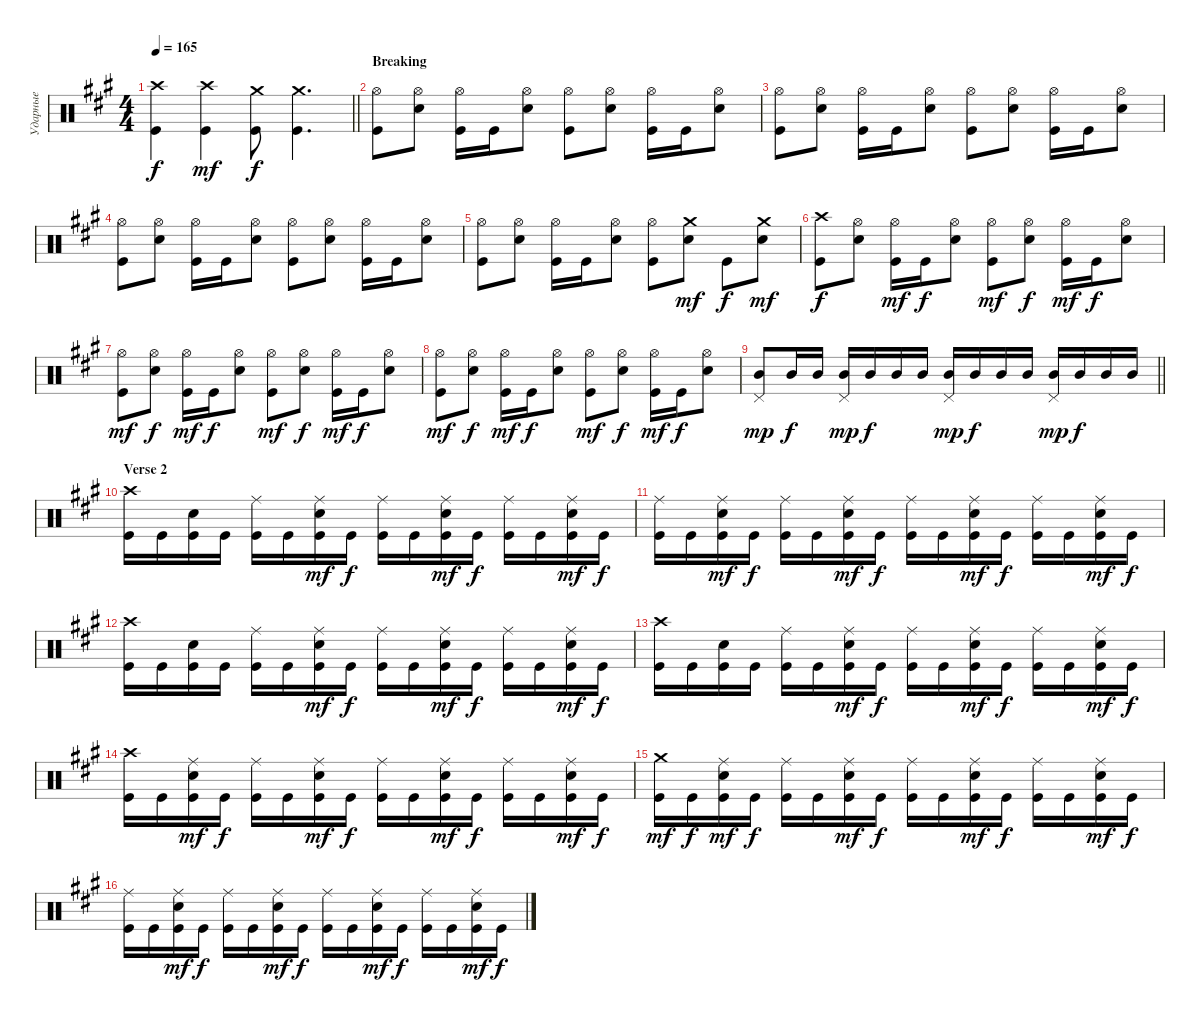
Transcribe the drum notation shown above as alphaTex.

\track ("Ударные" "Ударные") {instrument percussion}
\staff {score}
\articulation defaults
\ts (4 4)
\tempo 165
\clef neutral
\barLineRight lightlight
\ks f#minor
("Kick (hit)" "Crash high (hit)").4{dy f} ("Kick (hit)" "Crash high (hit)").4{dy mf} ("Kick (hit)" "Crash medium (hit)").8{dy f} ("Kick (hit)" "Crash medium (hit)").4{d} |
\section ("" "Breaking")
("Kick (hit)" "Hi-Hat (open)").8 ("Snare (hit) 2" "Hi-Hat (open)").8 ("Kick (hit)" "Hi-Hat (open)").16 "Kick (hit)".16 ("Snare (hit) 2" "Hi-Hat (open)").8 ("Kick (hit)" "Hi-Hat (open)").8 ("Snare (hit) 2" "Hi-Hat (open)").8 ("Kick (hit)" "Hi-Hat (open)").16 "Kick (hit)".16 ("Snare (hit) 2" "Hi-Hat (open)").8 |
("Kick (hit)" "Hi-Hat (open)").8 ("Snare (hit) 2" "Hi-Hat (open)").8 ("Kick (hit)" "Hi-Hat (open)").16 "Kick (hit)".16 ("Snare (hit) 2" "Hi-Hat (open)").8 ("Kick (hit)" "Hi-Hat (open)").8 ("Snare (hit) 2" "Hi-Hat (open)").8 ("Kick (hit)" "Hi-Hat (open)").16 "Kick (hit)".16 ("Snare (hit) 2" "Hi-Hat (open)").8 |
("Kick (hit)" "Hi-Hat (open)").8 ("Snare (hit) 2" "Hi-Hat (open)").8 ("Kick (hit)" "Hi-Hat (open)").16 "Kick (hit)".16 ("Snare (hit) 2" "Hi-Hat (open)").8 ("Kick (hit)" "Hi-Hat (open)").8 ("Snare (hit) 2" "Hi-Hat (open)").8 ("Kick (hit)" "Hi-Hat (open)").16 "Kick (hit)".16 ("Snare (hit) 2" "Hi-Hat (open)").8 |
("Kick (hit)" "Hi-Hat (open)").8 ("Snare (hit) 2" "Hi-Hat (open)").8 ("Kick (hit)" "Hi-Hat (open)").16 "Kick (hit)".16 ("Snare (hit) 2" "Hi-Hat (open)").8 ("Kick (hit)" "Hi-Hat (open)").8 ("Snare (hit) 2" "Crash medium (hit)").8{dy mf} "Kick (hit)".8{dy f} ("Snare (hit) 2" "Crash medium (hit)").8{dy mf} |
("Kick (hit)" "Crash high (hit)").8{dy f} ("Snare (hit) 2" "Hi-Hat (open)").8 ("Kick (hit)" "Hi-Hat (open)").16{dy mf} "Kick (hit)".16{dy f} ("Snare (hit) 2" "Hi-Hat (open)").8 ("Kick (hit)" "Hi-Hat (open)").8{dy mf} ("Snare (hit) 2" "Hi-Hat (open)").8{dy f} ("Kick (hit)" "Hi-Hat (open)").16{dy mf} "Kick (hit)".16{dy f} ("Snare (hit) 2" "Hi-Hat (open)").8 |
("Kick (hit)" "Hi-Hat (open)").8{dy mf} ("Snare (hit) 2" "Hi-Hat (open)").8{dy f} ("Kick (hit)" "Hi-Hat (open)").16{dy mf} "Kick (hit)".16{dy f} ("Snare (hit) 2" "Hi-Hat (open)").8 ("Kick (hit)" "Hi-Hat (open)").8{dy mf} ("Snare (hit) 2" "Hi-Hat (open)").8{dy f} ("Kick (hit)" "Hi-Hat (open)").16{dy mf} "Kick (hit)".16{dy f} ("Snare (hit) 2" "Hi-Hat (open)").8 |
("Kick (hit)" "Hi-Hat (open)").8{dy mf} ("Snare (hit) 2" "Hi-Hat (open)").8{dy f} ("Kick (hit)" "Hi-Hat (open)").16{dy mf} "Kick (hit)".16{dy f} ("Snare (hit) 2" "Hi-Hat (open)").8 ("Kick (hit)" "Hi-Hat (open)").8{dy mf} ("Snare (hit) 2" "Hi-Hat (open)").8{dy f} ("Kick (hit)" "Hi-Hat (open)").16{dy mf} "Kick (hit)".16{dy f} ("Snare (hit) 2" "Hi-Hat (open)").8 |
\barLineRight lightlight
("Mid Tom (hit)" "Pedal Hi-Hat (hit)").8{dy mp} "Mid Tom (hit)".16{dy f} "Mid Tom (hit)".16 ("Pedal Hi-Hat (hit)" "Mid Tom (hit)").16{dy mp} "Mid Tom (hit)".16{dy f} "Mid Tom (hit)".16 "Mid Tom (hit)".16 ("Mid Tom (hit)" "Pedal Hi-Hat (hit)").16{dy mp} "Mid Tom (hit)".16{dy f} "Mid Tom (hit)".16 "Mid Tom (hit)".16 ("Mid Tom (hit)" "Pedal Hi-Hat (hit)").16{dy mp} "Mid Tom (hit)".16{dy f} "Mid Tom (hit)".16 "Mid Tom (hit)".16 |
\section ("" "Verse 2")
("Kick (hit)" "Crash high (hit)").16 "Kick (hit)".16 ("Kick (hit)" "Snare (hit) 2").16 "Kick (hit)".16 ("Kick (hit)" "Ride (middle)").16 "Kick (hit)".16 ("Kick (hit)" "Snare (hit) 2" "Ride (middle)").16{dy mf} "Kick (hit)".16{dy f} ("Kick (hit)" "Ride (middle)").16 "Kick (hit)".16 ("Kick (hit)" "Snare (hit) 2" "Ride (middle)").16{dy mf} "Kick (hit)".16{dy f} ("Kick (hit)" "Ride (middle)").16 "Kick (hit)".16 ("Kick (hit)" "Snare (hit) 2" "Ride (middle)").16{dy mf} "Kick (hit)".16{dy f} |
("Kick (hit)" "Ride (middle)").16 "Kick (hit)".16 ("Kick (hit)" "Snare (hit) 2" "Ride (middle)").16{dy mf} "Kick (hit)".16{dy f} ("Kick (hit)" "Ride (middle)").16 "Kick (hit)".16 ("Kick (hit)" "Snare (hit) 2" "Ride (middle)").16{dy mf} "Kick (hit)".16{dy f} ("Kick (hit)" "Ride (middle)").16 "Kick (hit)".16 ("Kick (hit)" "Snare (hit) 2" "Ride (middle)").16{dy mf} "Kick (hit)".16{dy f} ("Kick (hit)" "Ride (middle)").16 "Kick (hit)".16 ("Kick (hit)" "Snare (hit) 2" "Ride (middle)").16{dy mf} "Kick (hit)".16{dy f} |
("Kick (hit)" "Crash high (hit)").16 "Kick (hit)".16 ("Kick (hit)" "Snare (hit) 2").16 "Kick (hit)".16 ("Kick (hit)" "Ride (middle)").16 "Kick (hit)".16 ("Kick (hit)" "Snare (hit) 2" "Ride (middle)").16{dy mf} "Kick (hit)".16{dy f} ("Kick (hit)" "Ride (middle)").16 "Kick (hit)".16 ("Kick (hit)" "Snare (hit) 2" "Ride (middle)").16{dy mf} "Kick (hit)".16{dy f} ("Kick (hit)" "Ride (middle)").16 "Kick (hit)".16 ("Kick (hit)" "Snare (hit) 2" "Ride (middle)").16{dy mf} "Kick (hit)".16{dy f} |
("Kick (hit)" "Crash high (hit)").16 "Kick (hit)".16 ("Kick (hit)" "Snare (hit) 2").16 "Kick (hit)".16 ("Kick (hit)" "Ride (middle)").16 "Kick (hit)".16 ("Kick (hit)" "Snare (hit) 2" "Ride (middle)").16{dy mf} "Kick (hit)".16{dy f} ("Kick (hit)" "Ride (middle)").16 "Kick (hit)".16 ("Kick (hit)" "Snare (hit) 2" "Ride (middle)").16{dy mf} "Kick (hit)".16{dy f} ("Kick (hit)" "Ride (middle)").16 "Kick (hit)".16 ("Kick (hit)" "Snare (hit) 2" "Ride (middle)").16{dy mf} "Kick (hit)".16{dy f} |
("Kick (hit)" "Crash high (hit)").16 "Kick (hit)".16 ("Kick (hit)" "Snare (hit) 2" "Ride (middle)").16{dy mf} "Kick (hit)".16{dy f} ("Kick (hit)" "Ride (middle)").16 "Kick (hit)".16 ("Kick (hit)" "Snare (hit) 2" "Ride (middle)").16{dy mf} "Kick (hit)".16{dy f} ("Kick (hit)" "Ride (middle)").16 "Kick (hit)".16 ("Kick (hit)" "Snare (hit) 2" "Ride (middle)").16{dy mf} "Kick (hit)".16{dy f} ("Kick (hit)" "Ride (middle)").16 "Kick (hit)".16 ("Kick (hit)" "Snare (hit) 2" "Ride (middle)").16{dy mf} "Kick (hit)".16{dy f} |
("Kick (hit)" "Crash medium (hit)").16{dy mf} "Kick (hit)".16{dy f} ("Kick (hit)" "Snare (hit) 2" "Ride (middle)").16{dy mf} "Kick (hit)".16{dy f} ("Kick (hit)" "Ride (middle)").16 "Kick (hit)".16 ("Kick (hit)" "Snare (hit) 2" "Ride (middle)").16{dy mf} "Kick (hit)".16{dy f} ("Kick (hit)" "Ride (middle)").16 "Kick (hit)".16 ("Kick (hit)" "Snare (hit) 2" "Ride (middle)").16{dy mf} "Kick (hit)".16{dy f} ("Kick (hit)" "Ride (middle)").16 "Kick (hit)".16 ("Kick (hit)" "Snare (hit) 2" "Ride (middle)").16{dy mf} "Kick (hit)".16{dy f} |
("Kick (hit)" "Ride (middle)").16 "Kick (hit)".16 ("Kick (hit)" "Snare (hit) 2" "Ride (middle)").16{dy mf} "Kick (hit)".16{dy f} ("Kick (hit)" "Ride (middle)").16 "Kick (hit)".16 ("Kick (hit)" "Snare (hit) 2" "Ride (middle)").16{dy mf} "Kick (hit)".16{dy f} ("Kick (hit)" "Ride (middle)").16 "Kick (hit)".16 ("Kick (hit)" "Snare (hit) 2" "Ride (middle)").16{dy mf} "Kick (hit)".16{dy f} ("Kick (hit)" "Ride (middle)").16 "Kick (hit)".16 ("Kick (hit)" "Snare (hit) 2" "Ride (middle)").16{dy mf} "Kick (hit)".16{dy f}
